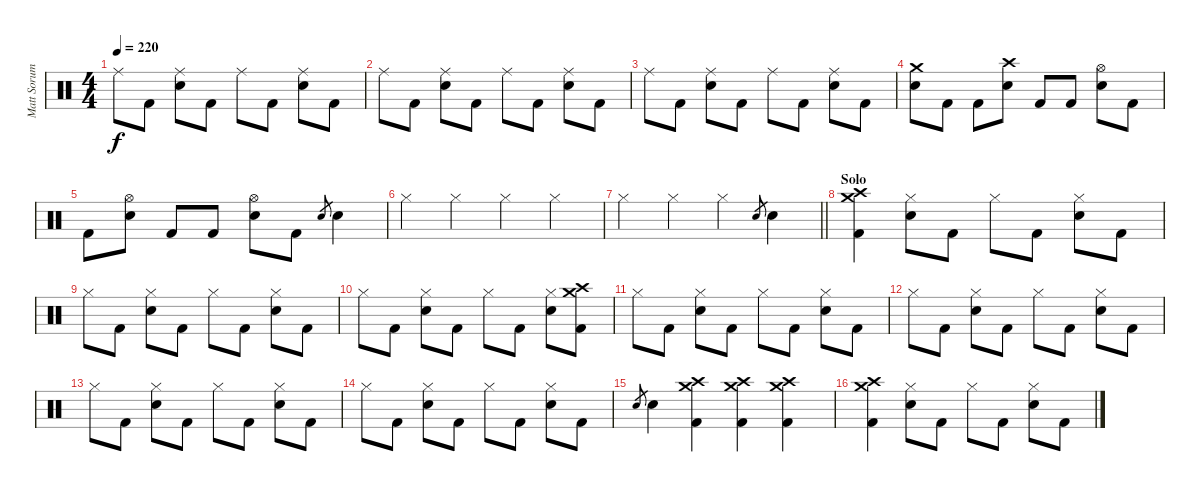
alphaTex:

\track ("Matt Sorum - Drums" "Matt Sorum") {instrument percussion}
\staff {score}
\articulation defaults
\ts (4 4)
\tempo 220
\clef neutral
\ks c "Ride (middle)".8{dy f} "Kick (hit) 2".8
("Ride (middle)" "Snare (hit) 2").8 "Kick (hit) 2".8 "Ride (middle)".8 "Kick (hit) 2".8 ("Ride (middle)" "Snare (hit) 2").8 "Kick (hit) 2".8 |
"Ride (middle)".8 "Kick (hit) 2".8 ("Ride (middle)" "Snare (hit) 2").8 "Kick (hit) 2".8 "Ride (middle)".8 "Kick (hit) 2".8 ("Ride (middle)" "Snare (hit) 2").8 "Kick (hit) 2".8 |
"Ride (middle)".8 "Kick (hit) 2".8 ("Ride (middle)" "Snare (hit) 2").8 "Kick (hit) 2".8 "Ride (middle)".8 "Kick (hit) 2".8 ("Ride (middle)" "Snare (hit) 2").8 "Kick (hit) 2".8 |
("Crash medium (hit)" "Snare (hit) 2").8 "Kick (hit) 2".8 "Kick (hit) 2".8 ("Crash high (hit)" "Snare (hit) 2").8 "Kick (hit) 2".8 "Kick (hit) 2".8 ("Hi-Hat (open)" "Snare (hit) 2").8 "Kick (hit) 2".8 |
"Kick (hit) 2".8 ("Hi-Hat (open)" "Snare (hit) 2").8 "Kick (hit) 2".8 "Kick (hit) 2".8 ("Hi-Hat (open)" "Snare (hit) 2").8 "Kick (hit) 2".8 "Snare (hit) 2".8{gr} "Snare (hit) 2".4 |
"Hi-Hat (closed)".4 "Hi-Hat (closed)".4 "Hi-Hat (closed)".4 "Hi-Hat (closed)".4 |
\barLineRight lightlight "Hi-Hat (closed)".4 "Hi-Hat (closed)".4 "Hi-Hat (closed)".4 "Snare (hit) 2".8{gr} "Snare (hit) 2".4
|
\section ("" "Solo")
("Crash medium (hit)" "Crash high (hit)" "Kick (hit) 2").4 ("Hi-Hat (closed)" "Snare (hit) 2").8 "Kick (hit) 2".8 "Hi-Hat (closed)".8 "Kick (hit) 2".8 ("Hi-Hat (closed)" "Snare (hit) 2").8 "Kick (hit) 2".8 |
"Hi-Hat (closed)".8 "Kick (hit) 2".8 ("Hi-Hat (closed)" "Snare (hit) 2").8 "Kick (hit) 2".8 "Hi-Hat (closed)".8 "Kick (hit) 2".8 ("Hi-Hat (closed)" "Snare (hit) 2").8 "Kick (hit) 2".8 |
"Hi-Hat (closed)".8 "Kick (hit) 2".8 ("Hi-Hat (closed)" "Snare (hit) 2").8 "Kick (hit) 2".8 "Hi-Hat (closed)".8 "Kick (hit) 2".8 ("Hi-Hat (closed)" "Snare (hit) 2").8 ("Crash medium (hit)" "Crash high (hit)" "Kick (hit) 2").8 |
"Hi-Hat (closed)".8 "Kick (hit) 2".8 ("Hi-Hat (closed)" "Snare (hit) 2").8 "Kick (hit) 2".8 "Hi-Hat (closed)".8 "Kick (hit) 2".8 ("Hi-Hat (closed)" "Snare (hit) 2").8 "Kick (hit) 2".8 |
"Hi-Hat (closed)".8 "Kick (hit) 2".8 ("Hi-Hat (closed)" "Snare (hit) 2").8 "Kick (hit) 2".8 "Hi-Hat (closed)".8 "Kick (hit) 2".8 ("Hi-Hat (closed)" "Snare (hit) 2").8 "Kick (hit) 2".8 |
"Hi-Hat (closed)".8 "Kick (hit) 2".8 ("Hi-Hat (closed)" "Snare (hit) 2").8 "Kick (hit) 2".8 "Hi-Hat (closed)".8 "Kick (hit) 2".8 ("Hi-Hat (closed)" "Snare (hit) 2").8 "Kick (hit) 2".8 |
"Hi-Hat (closed)".8 "Kick (hit) 2".8 ("Hi-Hat (closed)" "Snare (hit) 2").8 "Kick (hit) 2".8 "Hi-Hat (closed)".8 "Kick (hit) 2".8 ("Hi-Hat (closed)" "Snare (hit) 2").8 "Kick (hit) 2".8 |
"Snare (hit) 2".8{gr} "Snare (hit) 2".4 ("Crash medium (hit)" "Crash high (hit)" "Kick (hit) 2").4 ("Crash high (hit)" "Crash medium (hit)" "Kick (hit) 2").4 ("Crash medium (hit)" "Crash high (hit)" "Kick (hit) 2").4 |
("Crash medium (hit)" "Crash high (hit)" "Kick (hit) 2").4 ("Hi-Hat (closed)" "Snare (hit) 2").8 "Kick (hit) 2".8 "Hi-Hat (closed)".8 "Kick (hit) 2".8 ("Hi-Hat (closed)" "Snare (hit) 2").8 "Kick (hit) 2".8
